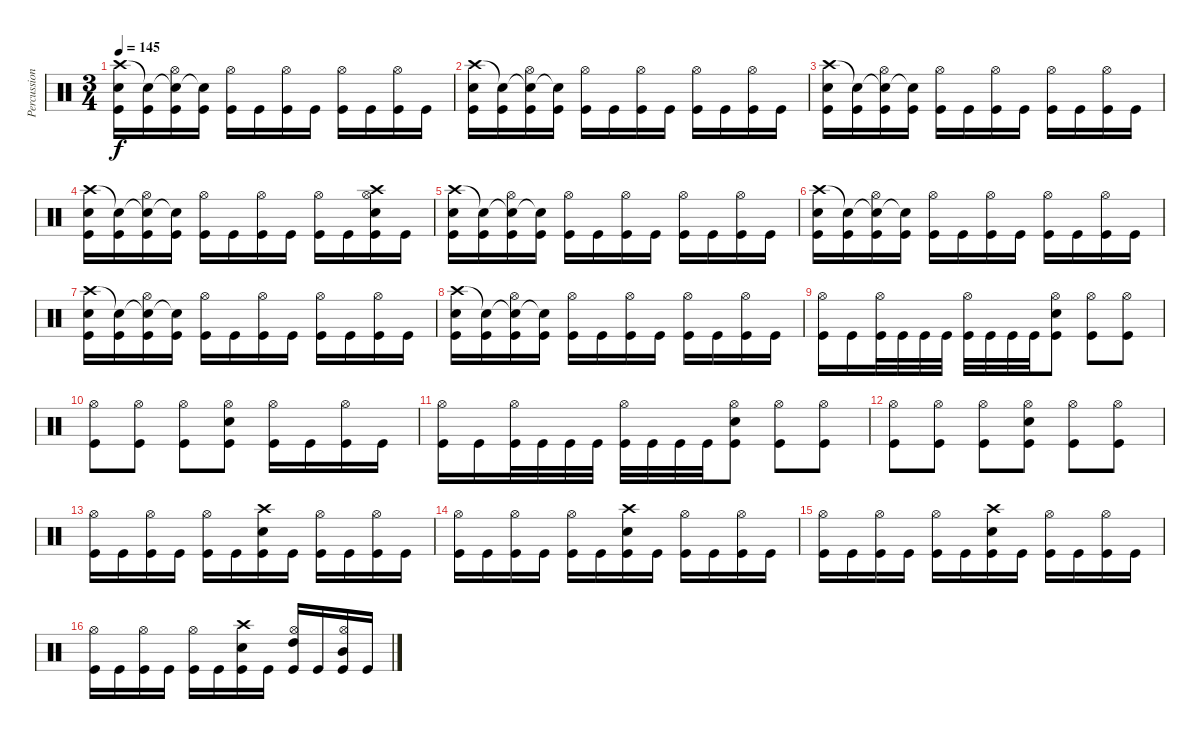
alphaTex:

\track ("Percussion" "Percussion") {instrument percussion}
\staff {score}
\articulation defaults
\ts (3 4)
\tempo 145
\clef neutral
\ks c
("Crash high (hit)" "Electric Snare (hit)" "Kick (hit)").16{dy f} ("Snare (hit)"{t} "Kick (hit)").16 ("Snare (hit)"{t} "Hi-Hat (open)" "Kick (hit)").16 ("Snare (hit)"{t} "Kick (hit)").16 ("Hi-Hat (open)" "Kick (hit)").16 "Kick (hit)".16 ("Hi-Hat (open)" "Kick (hit)").16 "Kick (hit)".16 ("Hi-Hat (open)" "Kick (hit)").16 "Kick (hit)".16 ("Hi-Hat (open)" "Kick (hit)").16 "Kick (hit)".16 |
("Crash high (hit)" "Electric Snare (hit)" "Kick (hit)").16 ("Snare (hit)"{t} "Kick (hit)").16 ("Snare (hit)"{t} "Hi-Hat (open)" "Kick (hit)").16 ("Snare (hit)"{t} "Kick (hit)").16 ("Hi-Hat (open)" "Kick (hit)").16 "Kick (hit)".16 ("Hi-Hat (open)" "Kick (hit)").16 "Kick (hit)".16 ("Hi-Hat (open)" "Kick (hit)").16 "Kick (hit)".16 ("Hi-Hat (open)" "Kick (hit)").16 "Kick (hit)".16 |
("Crash high (hit)" "Electric Snare (hit)" "Kick (hit)").16 ("Snare (hit)"{t} "Kick (hit)").16 ("Snare (hit)"{t} "Hi-Hat (open)" "Kick (hit)").16 ("Snare (hit)"{t} "Kick (hit)").16 ("Hi-Hat (open)" "Kick (hit)").16 "Kick (hit)".16 ("Hi-Hat (open)" "Kick (hit)").16 "Kick (hit)".16 ("Hi-Hat (open)" "Kick (hit)").16 "Kick (hit)".16 ("Hi-Hat (open)" "Kick (hit)").16 "Kick (hit)".16 |
("Crash high (hit)" "Electric Snare (hit)" "Kick (hit)").16 ("Snare (hit)"{t} "Kick (hit)").16 ("Snare (hit)"{t} "Hi-Hat (open)" "Kick (hit)").16 ("Snare (hit)"{t} "Kick (hit)").16 ("Hi-Hat (open)" "Kick (hit)").16 "Kick (hit)".16 ("Hi-Hat (open)" "Kick (hit)").16 "Kick (hit)".16 ("Hi-Hat (open)" "Kick (hit)").16 "Kick (hit)".16 ("Crash high (hit)" "Electric Snare (hit)" "Hi-Hat (open)" "Kick (hit)").16 "Kick (hit)".16 |
("Crash high (hit)" "Electric Snare (hit)" "Kick (hit)").16 ("Snare (hit)"{t} "Kick (hit)").16 ("Snare (hit)"{t} "Hi-Hat (open)" "Kick (hit)").16 ("Snare (hit)"{t} "Kick (hit)").16 ("Hi-Hat (open)" "Kick (hit)").16 "Kick (hit)".16 ("Hi-Hat (open)" "Kick (hit)").16 "Kick (hit)".16 ("Hi-Hat (open)" "Kick (hit)").16 "Kick (hit)".16 ("Hi-Hat (open)" "Kick (hit)").16 "Kick (hit)".16 |
("Crash high (hit)" "Electric Snare (hit)" "Kick (hit)").16 ("Snare (hit)"{t} "Kick (hit)").16 ("Snare (hit)"{t} "Hi-Hat (open)" "Kick (hit)").16 ("Snare (hit)"{t} "Kick (hit)").16 ("Hi-Hat (open)" "Kick (hit)").16 "Kick (hit)".16 ("Hi-Hat (open)" "Kick (hit)").16 "Kick (hit)".16 ("Hi-Hat (open)" "Kick (hit)").16 "Kick (hit)".16 ("Hi-Hat (open)" "Kick (hit)").16 "Kick (hit)".16 |
("Crash high (hit)" "Electric Snare (hit)" "Kick (hit)").16 ("Snare (hit)"{t} "Kick (hit)").16 ("Snare (hit)"{t} "Hi-Hat (open)" "Kick (hit)").16 ("Snare (hit)"{t} "Kick (hit)").16 ("Hi-Hat (open)" "Kick (hit)").16 "Kick (hit)".16 ("Hi-Hat (open)" "Kick (hit)").16 "Kick (hit)".16 ("Hi-Hat (open)" "Kick (hit)").16 "Kick (hit)".16 ("Hi-Hat (open)" "Kick (hit)").16 "Kick (hit)".16 |
("Crash high (hit)" "Electric Snare (hit)" "Kick (hit)").16 ("Snare (hit)"{t} "Kick (hit)").16 ("Snare (hit)"{t} "Hi-Hat (open)" "Kick (hit)").16 ("Snare (hit)"{t} "Kick (hit)").16 ("Hi-Hat (open)" "Kick (hit)").16 "Kick (hit)".16 ("Hi-Hat (open)" "Kick (hit)").16 "Kick (hit)".16 ("Hi-Hat (open)" "Kick (hit)").16 "Kick (hit)".16 ("Hi-Hat (open)" "Kick (hit)").16 "Kick (hit)".16 |
("Hi-Hat (open)" "Kick (hit)").16 "Kick (hit)".16 ("Hi-Hat (open)" "Kick (hit)").32 "Kick (hit)".32 "Kick (hit)".32 "Kick (hit)".32 ("Hi-Hat (open)" "Kick (hit)").32 "Kick (hit)".32 "Kick (hit)".32 "Kick (hit)".32 ("Hi-Hat (open)" "Snare (hit) 2" "Kick (hit)").8 ("Hi-Hat (open)" "Kick (hit)").8 ("Hi-Hat (open)" "Kick (hit)").8 |
("Hi-Hat (open)" "Kick (hit)").8 ("Hi-Hat (open)" "Kick (hit)").8 ("Hi-Hat (open)" "Kick (hit)").8 ("Hi-Hat (open)" "Snare (hit) 2" "Kick (hit)").8 ("Hi-Hat (open)" "Kick (hit)").16 "Kick (hit)".16 ("Hi-Hat (open)" "Kick (hit)").16 "Kick (hit)".16 |
("Hi-Hat (open)" "Kick (hit)").16 "Kick (hit)".16 ("Hi-Hat (open)" "Kick (hit)").32 "Kick (hit)".32 "Kick (hit)".32 "Kick (hit)".32 ("Hi-Hat (open)" "Kick (hit)").32 "Kick (hit)".32 "Kick (hit)".32 "Kick (hit)".32 ("Hi-Hat (open)" "Snare (hit) 2" "Kick (hit)").8 ("Hi-Hat (open)" "Kick (hit)").8 ("Hi-Hat (open)" "Kick (hit)").8 |
("Hi-Hat (open)" "Kick (hit)").8 ("Hi-Hat (open)" "Kick (hit)").8 ("Hi-Hat (open)" "Kick (hit)").8 ("Hi-Hat (open)" "Snare (hit) 2" "Kick (hit)").8 ("Hi-Hat (open)" "Kick (hit)").8 ("Hi-Hat (open)" "Kick (hit)").8 |
("Hi-Hat (open)" "Kick (hit)").16 "Kick (hit)".16 ("Hi-Hat (open)" "Kick (hit)").16 "Kick (hit)".16 ("Hi-Hat (open)" "Kick (hit)").16 "Kick (hit)".16 ("Crash high (hit)" "Snare (hit) 2" "Kick (hit)").16 "Kick (hit)".16 ("Hi-Hat (open)" "Kick (hit)").16 "Kick (hit)".16 ("Hi-Hat (open)" "Kick (hit)").16 "Kick (hit)".16 |
("Hi-Hat (open)" "Kick (hit)").16 "Kick (hit)".16 ("Hi-Hat (open)" "Kick (hit)").16 "Kick (hit)".16 ("Hi-Hat (open)" "Kick (hit)").16 "Kick (hit)".16 ("Crash high (hit)" "Snare (hit) 2" "Kick (hit)").16 "Kick (hit)".16 ("Hi-Hat (open)" "Kick (hit)").16 "Kick (hit)".16 ("Hi-Hat (open)" "Kick (hit)").16 "Kick (hit)".16 |
("Hi-Hat (open)" "Kick (hit)").16 "Kick (hit)".16 ("Hi-Hat (open)" "Kick (hit)").16 "Kick (hit)".16 ("Hi-Hat (open)" "Kick (hit)").16 "Kick (hit)".16 ("Crash high (hit)" "Snare (hit) 2" "Kick (hit)").16 "Kick (hit)".16 ("Hi-Hat (open)" "Kick (hit)").16 "Kick (hit)".16 ("Hi-Hat (open)" "Kick (hit)").16 "Kick (hit)".16 |
("Hi-Hat (open)" "Kick (hit)").16 "Kick (hit)".16 ("Hi-Hat (open)" "Kick (hit)").16 "Kick (hit)".16 ("Hi-Hat (open)" "Kick (hit)").16 "Kick (hit)".16 ("Crash high (hit)" "Snare (hit) 2" "Kick (hit)").16 "Kick (hit)".16 ("Hi-Hat (open)" "High Tom (hit)" "Kick (hit)").16 "Kick (hit)".16 ("Hi-Hat (open)" "Mid Tom (hit)" "Kick (hit)").16 "Kick (hit)".16
